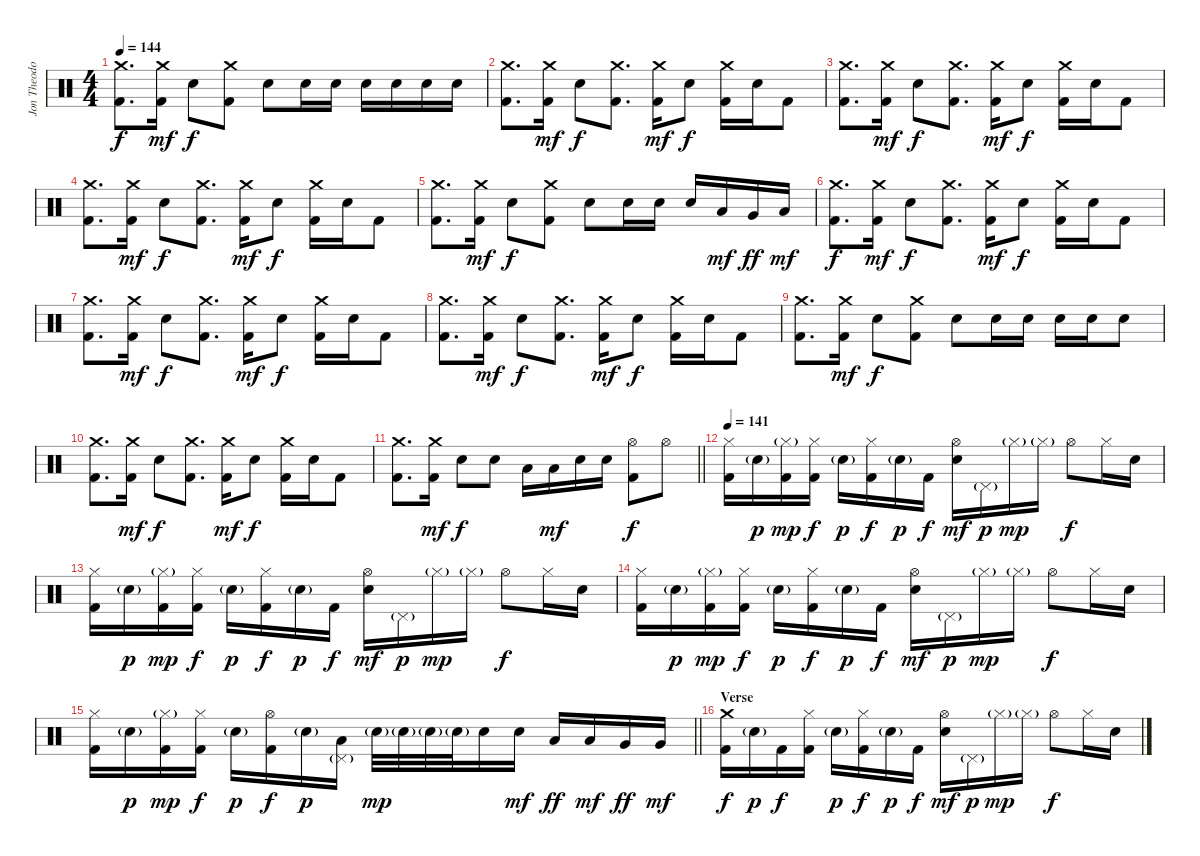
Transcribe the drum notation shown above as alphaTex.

\track ("Jon Theodore - Drums" "Jon Theodo") {instrument percussion}
\staff {score}
\articulation defaults
\ts (4 4)
\tempo 144
\clef neutral
\ks c
("Crash medium (hit)" "Kick (hit) 2").8{d dy f} ("Crash medium (hit)" "Kick (hit) 2").16{dy mf} "Electric Snare (hit)".8{dy f} ("Crash medium (hit)" "Kick (hit) 2").8 "Electric Snare (hit)".8 "Electric Snare (hit)".16 "Electric Snare (hit)".16 "Electric Snare (hit)".16 "Electric Snare (hit)".16 "Electric Snare (hit)".16 "Electric Snare (hit)".16 |
("Crash medium (hit)" "Kick (hit) 2").8{d} ("Crash medium (hit)" "Kick (hit) 2").16{dy mf} "Electric Snare (hit)".8{dy f} ("Crash medium (hit)" "Kick (hit) 2").8{d} ("Crash medium (hit)" "Kick (hit) 2").16{dy mf} "Electric Snare (hit)".8{dy f} ("Crash medium (hit)" "Kick (hit) 2").16 "Electric Snare (hit)".16 "Kick (hit) 2".8 |
("Crash medium (hit)" "Kick (hit) 2").8{d} ("Crash medium (hit)" "Kick (hit) 2").16{dy mf} "Electric Snare (hit)".8{dy f} ("Crash medium (hit)" "Kick (hit) 2").8{d} ("Crash medium (hit)" "Kick (hit) 2").16{dy mf} "Electric Snare (hit)".8{dy f} ("Crash medium (hit)" "Kick (hit) 2").16 "Electric Snare (hit)".16 "Kick (hit) 2".8 |
("Crash medium (hit)" "Kick (hit) 2").8{d} ("Crash medium (hit)" "Kick (hit) 2").16{dy mf} "Electric Snare (hit)".8{dy f} ("Crash medium (hit)" "Kick (hit) 2").8{d} ("Crash medium (hit)" "Kick (hit) 2").16{dy mf} "Electric Snare (hit)".8{dy f} ("Crash medium (hit)" "Kick (hit) 2").16 "Electric Snare (hit)".16 "Kick (hit) 2".8 |
("Crash medium (hit)" "Kick (hit) 2").8{d} ("Crash medium (hit)" "Kick (hit) 2").16{dy mf} "Electric Snare (hit)".8{dy f} ("Crash medium (hit)" "Kick (hit) 2").8 "Electric Snare (hit)".8 "Electric Snare (hit)".16 "Electric Snare (hit)".16 "Electric Snare (hit)".16 "Low Tom (hit)".16{dy mf} "Very Low Tom (hit)".16{dy ff} "Low Floor Tom (hit)".16{dy mf} |
("Crash medium (hit)" "Kick (hit) 2").8{d dy f} ("Crash medium (hit)" "Kick (hit) 2").16{dy mf} "Electric Snare (hit)".8{dy f} ("Crash medium (hit)" "Kick (hit) 2").8{d} ("Crash medium (hit)" "Kick (hit) 2").16{dy mf} "Electric Snare (hit)".8{dy f} ("Crash medium (hit)" "Kick (hit) 2").16 "Electric Snare (hit)".16 "Kick (hit) 2".8 |
("Crash medium (hit)" "Kick (hit) 2").8{d} ("Crash medium (hit)" "Kick (hit) 2").16{dy mf} "Electric Snare (hit)".8{dy f} ("Crash medium (hit)" "Kick (hit) 2").8{d} ("Crash medium (hit)" "Kick (hit) 2").16{dy mf} "Electric Snare (hit)".8{dy f} ("Crash medium (hit)" "Kick (hit) 2").16 "Electric Snare (hit)".16 "Kick (hit) 2".8 |
("Crash medium (hit)" "Kick (hit) 2").8{d} ("Crash medium (hit)" "Kick (hit) 2").16{dy mf} "Electric Snare (hit)".8{dy f} ("Crash medium (hit)" "Kick (hit) 2").8{d} ("Crash medium (hit)" "Kick (hit) 2").16{dy mf} "Electric Snare (hit)".8{dy f} ("Crash medium (hit)" "Kick (hit) 2").16 "Electric Snare (hit)".16 "Kick (hit) 2".8 |
("Crash medium (hit)" "Kick (hit) 2").8{d} ("Crash medium (hit)" "Kick (hit) 2").16{dy mf} "Electric Snare (hit)".8{dy f} ("Crash medium (hit)" "Kick (hit) 2").8 "Electric Snare (hit)".8 "Electric Snare (hit)".16 "Electric Snare (hit)".16 "Electric Snare (hit)".16 "Electric Snare (hit)".16 "Electric Snare (hit)".8 |
("Crash medium (hit)" "Kick (hit) 2").8{d} ("Crash medium (hit)" "Kick (hit) 2").16{dy mf} "Electric Snare (hit)".8{dy f} ("Crash medium (hit)" "Kick (hit) 2").8{d} ("Crash medium (hit)" "Kick (hit) 2").16{dy mf} "Electric Snare (hit)".8{dy f} ("Crash medium (hit)" "Kick (hit) 2").16 "Electric Snare (hit)".16 "Kick (hit) 2".8 |
\barLineRight lightlight
("Crash medium (hit)" "Kick (hit) 2").8{d} ("Crash medium (hit)" "Kick (hit) 2").16{dy mf} "Electric Snare (hit)".8{dy f} "Electric Snare (hit)".8 "Low Tom (hit)".16 "Low Tom (hit)".16{dy mf} "Electric Snare (hit)".16 "Electric Snare (hit)".16 ("Hi-Hat (open)" "Kick (hit) 2").8{dy f} "Hi-Hat (open)".8 |
\section ("" "")
\tempo 141
("Hi-Hat (closed)" "Kick (hit) 2").16 "Electric Snare (hit)"{g}.16{dy p} ("Hi-Hat (closed)"{g} "Kick (hit) 2").16{dy mp} ("Hi-Hat (closed)" "Kick (hit) 2").16{dy f} "Electric Snare (hit)"{g}.16{dy p} ("Hi-Hat (closed)" "Kick (hit) 2").16{dy f} "Electric Snare (hit)"{g}.16{dy p} "Kick (hit) 2".16{dy f} ("Hi-Hat (open)" "Electric Snare (hit)").16{dy mf} "Pedal Hi-Hat (hit)"{g}.16{dy p} "Hi-Hat (closed)"{g}.16{dy mp} "Hi-Hat (closed)"{g}.16 "Hi-Hat (open)".8{dy f} "Hi-Hat (closed)".16 "Electric Snare (hit)".16 |
("Hi-Hat (closed)" "Kick (hit) 2").16 "Electric Snare (hit)"{g}.16{dy p} ("Hi-Hat (closed)"{g} "Kick (hit) 2").16{dy mp} ("Hi-Hat (closed)" "Kick (hit) 2").16{dy f} "Electric Snare (hit)"{g}.16{dy p} ("Hi-Hat (closed)" "Kick (hit) 2").16{dy f} "Electric Snare (hit)"{g}.16{dy p} "Kick (hit) 2".16{dy f} ("Hi-Hat (open)" "Electric Snare (hit)").16{dy mf} "Pedal Hi-Hat (hit)"{g}.16{dy p} "Hi-Hat (closed)"{g}.16{dy mp} "Hi-Hat (closed)"{g}.16 "Hi-Hat (open)".8{dy f} "Hi-Hat (closed)".16 "Electric Snare (hit)".16 |
("Hi-Hat (closed)" "Kick (hit) 2").16 "Electric Snare (hit)"{g}.16{dy p} ("Hi-Hat (closed)"{g} "Kick (hit) 2").16{dy mp} ("Hi-Hat (closed)" "Kick (hit) 2").16{dy f} "Electric Snare (hit)"{g}.16{dy p} ("Hi-Hat (closed)" "Kick (hit) 2").16{dy f} "Electric Snare (hit)"{g}.16{dy p} "Kick (hit) 2".16{dy f} ("Hi-Hat (open)" "Electric Snare (hit)").16{dy mf} "Pedal Hi-Hat (hit)"{g}.16{dy p} "Hi-Hat (closed)"{g}.16{dy mp} "Hi-Hat (closed)"{g}.16 "Hi-Hat (open)".8{dy f} "Hi-Hat (closed)".16 "Electric Snare (hit)".16 |
\barLineRight lightlight
("Hi-Hat (closed)" "Kick (hit) 2").16 "Electric Snare (hit)"{g}.16{dy p} ("Hi-Hat (closed)"{g} "Kick (hit) 2").16{dy mp} ("Hi-Hat (closed)" "Kick (hit) 2").16{dy f} "Electric Snare (hit)"{g}.16{dy p} ("Hi-Hat (open)" "Kick (hit) 2").16{dy f} "Electric Snare (hit)"{g}.16{dy p} ("Low Tom (hit)" "Pedal Hi-Hat (hit)"{g}).16 "Electric Snare (hit)"{g}.32{dy mp} "Electric Snare (hit)"{g}.32 "Electric Snare (hit)"{g}.32 "Electric Snare (hit)"{g}.32 "Electric Snare (hit)".16 "Electric Snare (hit)".16{dy mf} "Low Tom (hit)".16{dy ff} "Low Tom (hit)".16{dy mf} "Very Low Tom (hit)".16{dy ff} "Very Low Tom (hit)".16{dy mf} |
\section ("" "Verse")
("Crash medium (hit)" "Kick (hit) 2").16{dy f} "Electric Snare (hit)"{g}.16{dy p} "Kick (hit) 2".16{dy f} ("Hi-Hat (closed)" "Kick (hit) 2").16 "Electric Snare (hit)"{g}.16{dy p} ("Hi-Hat (closed)" "Kick (hit) 2").16{dy f} "Electric Snare (hit)"{g}.16{dy p} "Kick (hit) 2".16{dy f} ("Hi-Hat (open)" "Electric Snare (hit)").16{dy mf} "Pedal Hi-Hat (hit)"{g}.16{dy p} "Hi-Hat (closed)"{g}.16{dy mp} "Hi-Hat (closed)"{g}.16 "Hi-Hat (open)".8{dy f} "Hi-Hat (closed)".16 "Electric Snare (hit)".16
